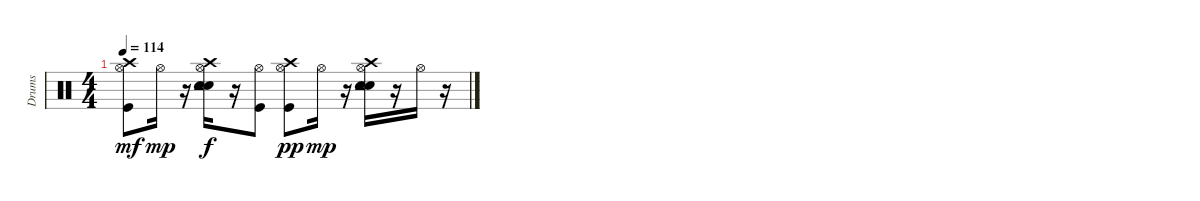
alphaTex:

\track ("Drums" "Drums") {instrument percussion}
\staff {score}
\articulation defaults
\ts (4 4)
\tempo 114
\clef neutral
\ks c
("Kick (hit)" "Hi-Hat (open)" "Crash high (hit)").8{dy mf} "Hi-Hat (open)".16{dy mp} r.16 ("Metronome (bell)" "Electric Snare (hit)" "Hi-Hat (open)" "Crash high (hit)" "Tambourine (hit)").16{dy f} r.16 ("Kick (hit)" "Hi-Hat (open)").8 ("Kick (hit)" "Hi-Hat (open)" "Crash high (hit)").8{dy pp} "Hi-Hat (open)".16{dy mp} r.16 ("Metronome (bell)" "Electric Snare (hit)" "Hi-Hat (open)" "Crash high (hit)" "Tambourine (hit)").16 r.16 "Hi-Hat (open)".16 r.16
